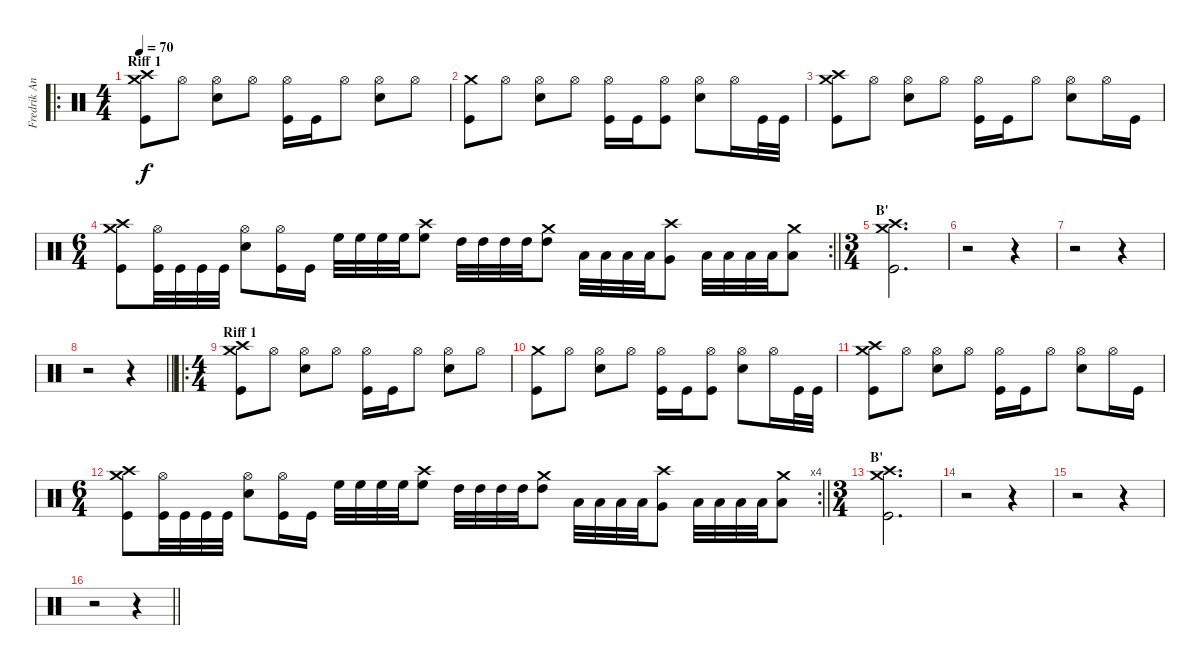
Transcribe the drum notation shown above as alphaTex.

\track ("Fredrik Andersson" "Fredrik An") {instrument percussion}
\staff {score}
\articulation defaults
\ro
\ts (4 4)
\section ("" "Riff 1")
\tempo 70
\clef neutral
\ks c
("Crash high (hit)" "Crash medium (hit)" "Kick (hit)").8{dy f} "Hi-Hat (open)".8 ("Hi-Hat (open)" "Electric Snare (hit)").8 "Hi-Hat (open)".8 ("Hi-Hat (open)" "Kick (hit)").16 "Kick (hit)".16 "Hi-Hat (open)".8 ("Hi-Hat (open)" "Electric Snare (hit)").8 "Hi-Hat (open)".8 |
("Crash medium (hit)" "Kick (hit)").8 "Hi-Hat (open)".8 ("Hi-Hat (open)" "Electric Snare (hit)").8 "Hi-Hat (open)".8 ("Hi-Hat (open)" "Kick (hit)").16 "Kick (hit)".16 ("Hi-Hat (open)" "Kick (hit)").8 ("Hi-Hat (open)" "Electric Snare (hit)").8 "Hi-Hat (open)".16 "Kick (hit)".32 "Kick (hit)".32 |
("Crash high (hit)" "Crash medium (hit)" "Kick (hit)").8 "Hi-Hat (open)".8 ("Hi-Hat (open)" "Electric Snare (hit)").8 "Hi-Hat (open)".8 ("Hi-Hat (open)" "Kick (hit)").16 "Kick (hit)".16 "Hi-Hat (open)".8 ("Hi-Hat (open)" "Electric Snare (hit)").8 "Hi-Hat (open)".16 "Kick (hit)".16 |
\rc 2
\ts (6 4)
\barLineRight lightlight
("Crash high (hit)" "Crash medium (hit)" "Kick (hit)").8 ("Hi-Hat (open)" "Kick (hit)").32 "Kick (hit)".32 "Kick (hit)".32 "Kick (hit)".32 ("Hi-Hat (open)" "Electric Snare (hit)").8 ("Hi-Hat (open)" "Kick (hit)").16 "Kick (hit)".16 "High Floor Tom (hit)".32 "High Floor Tom (hit)".32 "High Floor Tom (hit)".32 "High Floor Tom (hit)".32 ("Crash high (hit)" "High Floor Tom (hit)").8 "High Tom (hit)".32 "High Tom (hit)".32 "High Tom (hit)".32 "High Tom (hit)".32 ("Crash medium (hit)" "High Tom (hit)").8 "Low Tom (hit)".32 "Low Tom (hit)".32 "Low Tom (hit)".32 "Low Tom (hit)".32 ("Crash high (hit)" "Very Low Tom (hit)").8 "Low Floor Tom (hit)".32 "Low Floor Tom (hit)".32 "Low Floor Tom (hit)".32 "Low Floor Tom (hit)".32 ("Crash medium (hit)" "Low Floor Tom (hit)").8 |
\ts (3 4)
\section ("" "B'")
("Crash high (hit)" "Crash medium (hit)" "Kick (hit)").2{d} |
r.2 r.4 |
r.2 r.4 |
\barLineRight lightlight
r.2 r.4 |
\ro
\ts (4 4)
\section ("" "Riff 1")
("Crash high (hit)" "Crash medium (hit)" "Kick (hit)").8 "Hi-Hat (open)".8 ("Hi-Hat (open)" "Electric Snare (hit)").8 "Hi-Hat (open)".8 ("Hi-Hat (open)" "Kick (hit)").16 "Kick (hit)".16 "Hi-Hat (open)".8 ("Hi-Hat (open)" "Electric Snare (hit)").8 "Hi-Hat (open)".8 |
("Crash medium (hit)" "Kick (hit)").8 "Hi-Hat (open)".8 ("Hi-Hat (open)" "Electric Snare (hit)").8 "Hi-Hat (open)".8 ("Hi-Hat (open)" "Kick (hit)").16 "Kick (hit)".16 ("Hi-Hat (open)" "Kick (hit)").8 ("Hi-Hat (open)" "Electric Snare (hit)").8 "Hi-Hat (open)".16 "Kick (hit)".32 "Kick (hit)".32 |
("Crash high (hit)" "Crash medium (hit)" "Kick (hit)").8 "Hi-Hat (open)".8 ("Hi-Hat (open)" "Electric Snare (hit)").8 "Hi-Hat (open)".8 ("Hi-Hat (open)" "Kick (hit)").16 "Kick (hit)".16 "Hi-Hat (open)".8 ("Hi-Hat (open)" "Electric Snare (hit)").8 "Hi-Hat (open)".16 "Kick (hit)".16 |
\rc 4
\ts (6 4)
\barLineRight lightlight
("Crash high (hit)" "Crash medium (hit)" "Kick (hit)").8 ("Hi-Hat (open)" "Kick (hit)").32 "Kick (hit)".32 "Kick (hit)".32 "Kick (hit)".32 ("Hi-Hat (open)" "Electric Snare (hit)").8 ("Hi-Hat (open)" "Kick (hit)").16 "Kick (hit)".16 "High Floor Tom (hit)".32 "High Floor Tom (hit)".32 "High Floor Tom (hit)".32 "High Floor Tom (hit)".32 ("Crash high (hit)" "High Floor Tom (hit)").8 "High Tom (hit)".32 "High Tom (hit)".32 "High Tom (hit)".32 "High Tom (hit)".32 ("Crash medium (hit)" "High Tom (hit)").8 "Low Tom (hit)".32 "Low Tom (hit)".32 "Low Tom (hit)".32 "Low Tom (hit)".32 ("Crash high (hit)" "Very Low Tom (hit)").8 "Low Floor Tom (hit)".32 "Low Floor Tom (hit)".32 "Low Floor Tom (hit)".32 "Low Floor Tom (hit)".32 ("Crash medium (hit)" "Low Floor Tom (hit)").8 |
\ts (3 4)
\section ("" "B'")
("Crash high (hit)" "Crash medium (hit)" "Kick (hit)").2{d} |
r.2 r.4 |
r.2 r.4 |
\barLineRight lightlight
r.2 r.4
